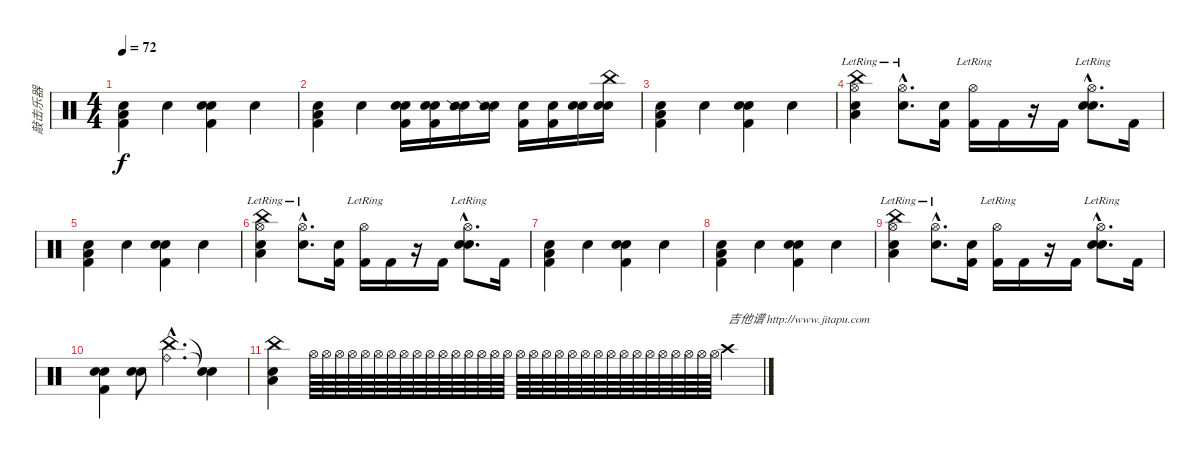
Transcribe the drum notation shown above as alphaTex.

\track ("敲击乐器" "敲击乐器") {instrument percussion}
\staff {score}
\articulation defaults
\ts (4 4)
\tempo 72
\clef neutral
\ks c
("Snare (hit) 2" "Kick (hit) 2" "Low Floor Tom (hit)").4{dy f} "Electric Snare (hit)".4 ("Snare (hit) 2" "Kick (hit) 2" "Hand Clap (hit)").4 "Electric Snare (hit)".4 |
("Snare (hit) 2" "Kick (hit) 2" "Low Floor Tom (hit)").4 "Electric Snare (hit)".4 ("Snare (hit) 2" "Kick (hit) 2" "Hand Clap (hit)").16 ("Snare (hit) 2" "Kick (hit) 2" "Hand Clap (hit)").16 ("Snare (hit) 2" "Snare (side stick) 2").16 ("Snare (hit) 2" "Snare (side stick) 2").16 ("Snare (hit) 2" "Kick (hit) 2").16 ("Snare (hit) 2" "Kick (hit) 2").16 ("Snare (hit) 2" "Snare (hit) 2").16 ("Snare (hit) 2" "Snare (hit) 2" "China (hit)").16 |
("Snare (hit) 2" "Kick (hit) 2" "Low Floor Tom (hit)").4 "Electric Snare (hit)".4 ("Snare (hit) 2" "Kick (hit) 2" "Hand Clap (hit)").4 "Electric Snare (hit)".4 |
("China (hit)" "Snare (hit) 2" "Low Floor Tom (hit)" "Hi-Hat (open)"{lr}).4 ("Electric Snare (hit)"{hac} "Hi-Hat (open)"{hac lr}).8{d} ("Kick (hit) 2" "Snare (hit) 2").16 ("Kick (hit) 2" "Hi-Hat (open)"{lr}).16 "Kick (hit) 2".16 r.16 "Kick (hit) 2".16 ("Electric Snare (hit)"{hac} "Hand Clap (hit)"{hac} "Hi-Hat (open)"{hac lr}).8{d} "Kick (hit) 2".16 |
("Snare (hit) 2" "Kick (hit) 2" "Low Floor Tom (hit)").4 "Electric Snare (hit)".4 ("Snare (hit) 2" "Kick (hit) 2" "Hand Clap (hit)").4 "Electric Snare (hit)".4 |
("China (hit)" "Snare (hit) 2" "Low Floor Tom (hit)" "Hi-Hat (open)"{lr}).4 ("Electric Snare (hit)"{hac} "Hi-Hat (open)"{hac lr}).8{d} ("Kick (hit) 2" "Snare (hit) 2").16 ("Kick (hit) 2" "Hi-Hat (open)"{lr}).16 "Kick (hit) 2".16 r.16 "Kick (hit) 2".16 ("Electric Snare (hit)"{hac} "Hand Clap (hit)"{hac} "Hi-Hat (open)"{hac lr}).8{d} "Kick (hit) 2".16 |
("Snare (hit) 2" "Kick (hit) 2" "Low Floor Tom (hit)").4 "Electric Snare (hit)".4 ("Snare (hit) 2" "Kick (hit) 2" "Hand Clap (hit)").4 "Electric Snare (hit)".4 |
("Snare (hit) 2" "Kick (hit) 2" "Low Floor Tom (hit)").4 "Electric Snare (hit)".4 ("Snare (hit) 2" "Kick (hit) 2" "Hand Clap (hit)").4 "Electric Snare (hit)".4 |
("China (hit)" "Snare (hit) 2" "Low Floor Tom (hit)" "Hi-Hat (open)"{lr}).4 ("Electric Snare (hit)"{hac} "Hi-Hat (open)"{hac lr}).8{d} ("Kick (hit) 2" "Snare (hit) 2").16 ("Kick (hit) 2" "Hi-Hat (open)"{lr}).16 "Kick (hit) 2".16 r.16 "Kick (hit) 2".16 ("Electric Snare (hit)"{hac} "Hand Clap (hit)"{hac} "Hi-Hat (open)"{hac lr}).8{d} "Kick (hit) 2".16 |
("Electric Snare (hit)" "Snare (hit) 2" "Kick (hit) 2").4 ("Electric Snare (hit)" "Hand Clap (hit)").8 ("Ride (bell)"{hac} "China (hit)"{hac}).4{d} ("Snare (hit)"{t} "Snare (hit)"{t}).4 |
("China (hit)" "Hand Clap (hit)" "Low Floor Tom (hit)").4 "Hi-Hat (open)".64 "Hi-Hat (open)".64 "Hi-Hat (open)".64 "Hi-Hat (open)".64 "Hi-Hat (open)".64 "Hi-Hat (open)".64 "Hi-Hat (open)".64 "Hi-Hat (open)".64 "Hi-Hat (open)".64 "Hi-Hat (open)".64 "Hi-Hat (open)".64 "Hi-Hat (open)".64 "Hi-Hat (open)".64 "Hi-Hat (open)".64 "Hi-Hat (open)".64 "Hi-Hat (open)".64 "Hi-Hat (open)".64 "Hi-Hat (open)".64 "Hi-Hat (open)".64 "Hi-Hat (open)".64 "Hi-Hat (open)".64 "Hi-Hat (open)".64 "Hi-Hat (open)".64 "Hi-Hat (open)".64 "Hi-Hat (open)".64 "Hi-Hat (open)".64 "Hi-Hat (open)".64 "Hi-Hat (open)".64 "Hi-Hat (open)".64 "Hi-Hat (open)".64 "Hi-Hat (open)".64 "Hi-Hat (open)".64 "Crash high (hit)".4{txt "吉他谱 http://www.jitapu.com"}
